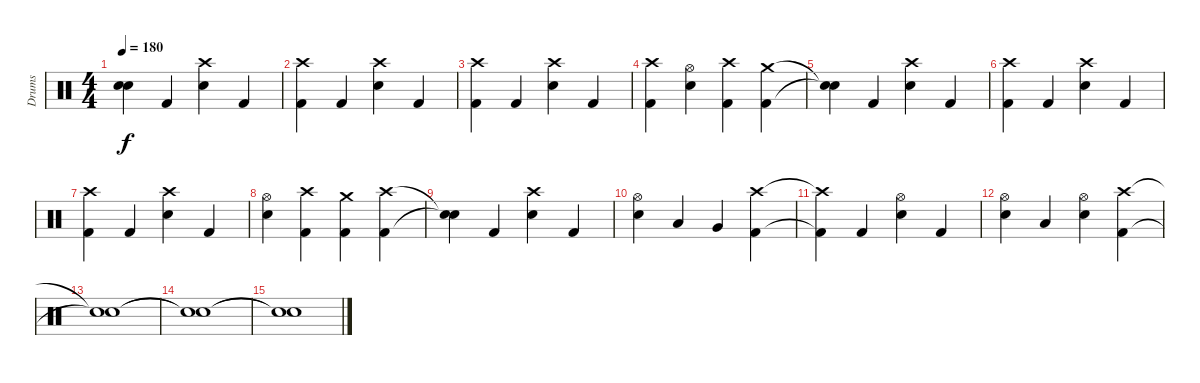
\track ("Drums" "Drums") {instrument percussion}
\staff {score}
\articulation defaults
\ts (4 4)
\tempo 180
\clef neutral
\ks c
("Snare (hit)"{t} "Snare (hit)"{t}).4{dy f} "Kick (hit) 2".4 ("Crash high (hit)" "Electric Snare (hit)").4 "Kick (hit) 2".4 |
("Crash high (hit)" "Kick (hit) 2").4 "Kick (hit) 2".4 ("Crash high (hit)" "Electric Snare (hit)").4 "Kick (hit) 2".4 |
("Crash high (hit)" "Kick (hit) 2").4 "Kick (hit) 2".4 ("Crash high (hit)" "Electric Snare (hit)").4 "Kick (hit) 2".4 |
("Crash high (hit)" "Kick (hit) 2").4 ("Hi-Hat (open)" "Electric Snare (hit)").4 ("Crash high (hit)" "Kick (hit) 2").4 ("Crash medium (hit)" "Kick (hit) 2").4 |
("Snare (hit)"{t} "Snare (hit)"{t}).4 "Kick (hit) 2".4 ("Crash high (hit)" "Electric Snare (hit)").4 "Kick (hit) 2".4 |
("Crash high (hit)" "Kick (hit) 2").4 "Kick (hit) 2".4 ("Crash high (hit)" "Electric Snare (hit)").4 "Kick (hit) 2".4 |
("Crash high (hit)" "Kick (hit) 2").4 "Kick (hit) 2".4 ("Crash high (hit)" "Electric Snare (hit)").4 "Kick (hit) 2".4 |
("Hi-Hat (open)" "Electric Snare (hit)").4 ("Crash high (hit)" "Kick (hit) 2").4 ("Crash medium (hit)" "Kick (hit) 2").4 ("Crash high (hit)" "Kick (hit) 2").4 |
("Snare (hit)"{t} "Snare (hit)"{t}).4 "Kick (hit) 2".4 ("Crash high (hit)" "Electric Snare (hit)").4 "Kick (hit) 2".4 |
("Hi-Hat (open)" "Electric Snare (hit)").4 "Low Tom (hit)".4 "Very Low Tom (hit)".4 ("Crash high (hit)" "Kick (hit) 2").4 |
("Crash high (hit)"{t} "Kick (hit) 2"{t}).4 "Kick (hit) 2".4 ("Hi-Hat (open)" "Electric Snare (hit)").4 "Kick (hit) 2".4 |
("Hi-Hat (open)" "Electric Snare (hit)").4 "Low Tom (hit)".4 ("Hi-Hat (open)" "Electric Snare (hit)").4 ("Crash high (hit)" "Kick (hit) 2").4 |
("Snare (hit)"{t} "Snare (hit)"{t}).1 |
("Snare (hit)"{t} "Snare (hit)"{t}).1 |
("Snare (hit)"{t} "Snare (hit)"{t}).1
